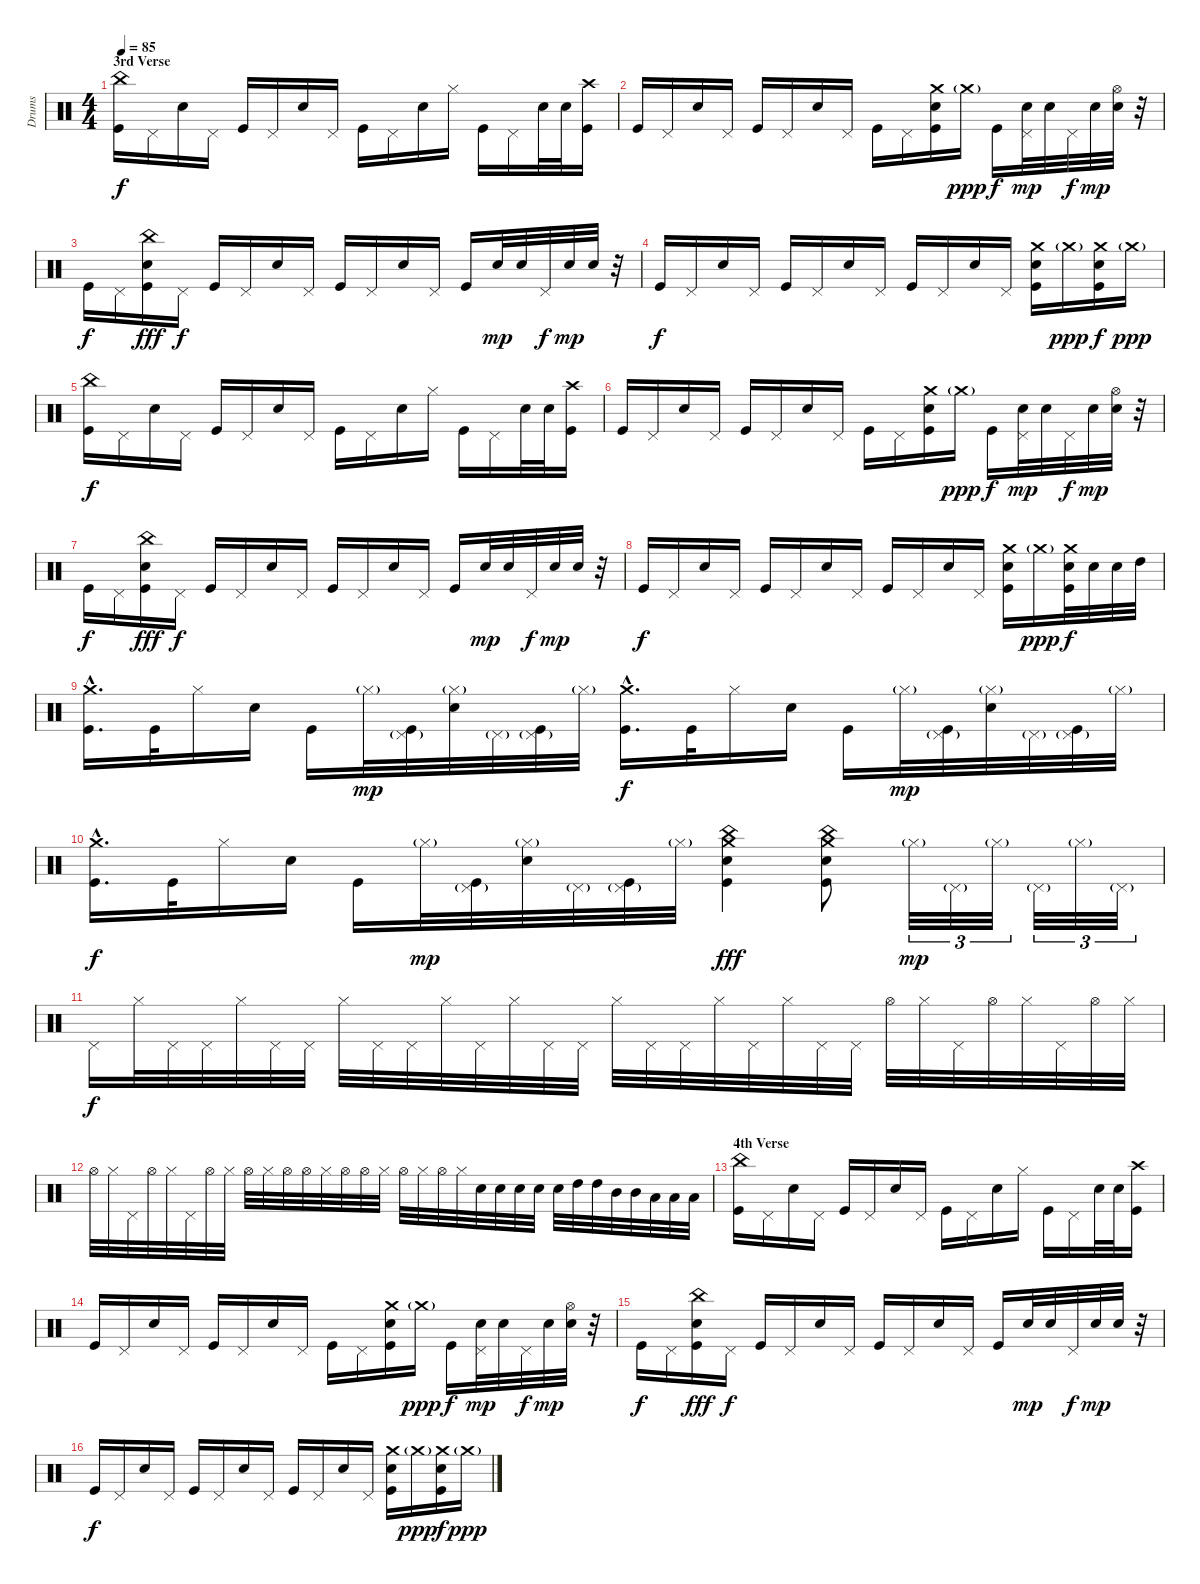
\track ("Drums" "Drums") {instrument percussion}
\staff {score}
\articulation defaults
\ts (4 4)
\section ("" "3rd Verse")
\tempo 85
\clef neutral
\ks c
("China (hit)" "Kick (hit)").16{dy f} "Pedal Hi-Hat (hit)".16 "Electric Snare (hit)".16 "Pedal Hi-Hat (hit)".16 "Kick (hit)".16 "Pedal Hi-Hat (hit)".16 "Electric Snare (hit)".16 "Pedal Hi-Hat (hit)".16 "Kick (hit)".16 "Pedal Hi-Hat (hit)".16 "Electric Snare (hit)".16 "Hi-Hat (closed)".16 "Kick (hit)".16 "Pedal Hi-Hat (hit)".16 "Electric Snare (hit)".32 "Electric Snare (hit)".32 ("Crash high (hit)" "Kick (hit)").16 |
"Kick (hit)".16 "Pedal Hi-Hat (hit)".16 "Electric Snare (hit)".16 "Pedal Hi-Hat (hit)".16 "Kick (hit)".16 "Pedal Hi-Hat (hit)".16 "Electric Snare (hit)".16 "Pedal Hi-Hat (hit)".16 "Kick (hit)".16 "Pedal Hi-Hat (hit)".16 ("Crash medium (hit)" "Electric Snare (hit)" "Kick (hit)").16 "Crash medium (hit)"{g}.16{dy ppp} "Kick (hit)".16{dy f} ("Pedal Hi-Hat (hit)" "Electric Snare (hit)").32{dy mp} "Electric Snare (hit)".32 "Pedal Hi-Hat (hit)".32{dy f} "Electric Snare (hit)".32{dy mp} ("Hi-Hat (open)" "Electric Snare (hit)").32 r.32 |
"Kick (hit)".16{dy f} "Pedal Hi-Hat (hit)".16 ("China (hit)" "Electric Snare (hit)" "Kick (hit)").16{dy fff} "Pedal Hi-Hat (hit)".16{dy f} "Kick (hit)".16 "Pedal Hi-Hat (hit)".16 "Electric Snare (hit)".16 "Pedal Hi-Hat (hit)".16 "Kick (hit)".16 "Pedal Hi-Hat (hit)".16 "Electric Snare (hit)".16 "Pedal Hi-Hat (hit)".16 "Kick (hit)".16 "Electric Snare (hit)".32{dy mp} "Electric Snare (hit)".32 "Pedal Hi-Hat (hit)".32{dy f} "Electric Snare (hit)".32{dy mp} "Electric Snare (hit)".32 r.32 |
"Kick (hit)".16{dy f} "Pedal Hi-Hat (hit)".16 "Electric Snare (hit)".16 "Pedal Hi-Hat (hit)".16 "Kick (hit)".16 "Pedal Hi-Hat (hit)".16 "Electric Snare (hit)".16 "Pedal Hi-Hat (hit)".16 "Kick (hit)".16 "Pedal Hi-Hat (hit)".16 "Electric Snare (hit)".16 "Pedal Hi-Hat (hit)".16 ("Crash medium (hit)" "Electric Snare (hit)" "Kick (hit)").16 "Crash medium (hit)"{g}.16{dy ppp} ("Crash medium (hit)" "Electric Snare (hit)" "Kick (hit)").16{dy f} "Crash medium (hit)"{g}.16{dy ppp} |
("China (hit)" "Kick (hit)").16{dy f} "Pedal Hi-Hat (hit)".16 "Electric Snare (hit)".16 "Pedal Hi-Hat (hit)".16 "Kick (hit)".16 "Pedal Hi-Hat (hit)".16 "Electric Snare (hit)".16 "Pedal Hi-Hat (hit)".16 "Kick (hit)".16 "Pedal Hi-Hat (hit)".16 "Electric Snare (hit)".16 "Hi-Hat (closed)".16 "Kick (hit)".16 "Pedal Hi-Hat (hit)".16 "Electric Snare (hit)".32 "Electric Snare (hit)".32 ("Crash high (hit)" "Kick (hit)").16 |
"Kick (hit)".16 "Pedal Hi-Hat (hit)".16 "Electric Snare (hit)".16 "Pedal Hi-Hat (hit)".16 "Kick (hit)".16 "Pedal Hi-Hat (hit)".16 "Electric Snare (hit)".16 "Pedal Hi-Hat (hit)".16 "Kick (hit)".16 "Pedal Hi-Hat (hit)".16 ("Crash medium (hit)" "Electric Snare (hit)" "Kick (hit)").16 "Crash medium (hit)"{g}.16{dy ppp} "Kick (hit)".16{dy f} ("Pedal Hi-Hat (hit)" "Electric Snare (hit)").32{dy mp} "Electric Snare (hit)".32 "Pedal Hi-Hat (hit)".32{dy f} "Electric Snare (hit)".32{dy mp} ("Hi-Hat (open)" "Electric Snare (hit)").32 r.32 |
"Kick (hit)".16{dy f} "Pedal Hi-Hat (hit)".16 ("China (hit)" "Electric Snare (hit)" "Kick (hit)").16{dy fff} "Pedal Hi-Hat (hit)".16{dy f} "Kick (hit)".16 "Pedal Hi-Hat (hit)".16 "Electric Snare (hit)".16 "Pedal Hi-Hat (hit)".16 "Kick (hit)".16 "Pedal Hi-Hat (hit)".16 "Electric Snare (hit)".16 "Pedal Hi-Hat (hit)".16 "Kick (hit)".16 "Electric Snare (hit)".32{dy mp} "Electric Snare (hit)".32 "Pedal Hi-Hat (hit)".32{dy f} "Electric Snare (hit)".32{dy mp} "Electric Snare (hit)".32 r.32 |
"Kick (hit)".16{dy f} "Pedal Hi-Hat (hit)".16 "Electric Snare (hit)".16 "Pedal Hi-Hat (hit)".16 "Kick (hit)".16 "Pedal Hi-Hat (hit)".16 "Electric Snare (hit)".16 "Pedal Hi-Hat (hit)".16 "Kick (hit)".16 "Pedal Hi-Hat (hit)".16 "Electric Snare (hit)".16 "Pedal Hi-Hat (hit)".16 ("Crash medium (hit)" "Electric Snare (hit)" "Kick (hit)").16 "Crash medium (hit)"{g}.16{dy ppp} ("Crash medium (hit)" "Electric Snare (hit)" "Kick (hit)").32{dy f} "Electric Snare (hit)".32 "Electric Snare (hit)".32 "High Tom (hit)".32 |
("Crash medium (hit)"{hac} "Kick (hit)"{hac}).16{d} "Kick (hit)".32 "Hi-Hat (closed)".16 "Electric Snare (hit)".16 "Kick (hit)".16 "Hi-Hat (closed)"{g}.32{dy mp} ("Pedal Hi-Hat (hit)"{g} "Kick (hit)").32 ("Hi-Hat (closed)"{g} "Electric Snare (hit)").32 "Pedal Hi-Hat (hit)"{g}.32 ("Pedal Hi-Hat (hit)"{g} "Kick (hit)").32 "Hi-Hat (closed)"{g}.32 ("Crash medium (hit)"{hac} "Kick (hit)"{hac}).16{d dy f} "Kick (hit)".32 "Hi-Hat (closed)".16 "Electric Snare (hit)".16 "Kick (hit)".16 "Hi-Hat (closed)"{g}.32{dy mp} ("Pedal Hi-Hat (hit)"{g} "Kick (hit)").32 ("Hi-Hat (closed)"{g} "Electric Snare (hit)").32 "Pedal Hi-Hat (hit)"{g}.32 ("Pedal Hi-Hat (hit)"{g} "Kick (hit)").32 "Hi-Hat (closed)"{g}.32 |
("Crash medium (hit)"{hac} "Kick (hit)"{hac}).16{d dy f} "Kick (hit)".32 "Hi-Hat (closed)".16 "Electric Snare (hit)".16 "Kick (hit)".16 "Hi-Hat (closed)"{g}.32{dy mp} ("Pedal Hi-Hat (hit)"{g} "Kick (hit)").32 ("Hi-Hat (closed)"{g} "Electric Snare (hit)").32 "Pedal Hi-Hat (hit)"{g}.32 ("Pedal Hi-Hat (hit)"{g} "Kick (hit)").32 "Hi-Hat (closed)"{g}.32 ("China (hit)" "Crash medium (hit)" "Electric Snare (hit)" "Kick (hit)").4{dy fff} ("China (hit)" "Crash medium (hit)" "Electric Snare (hit)" "Kick (hit)").8 "Hi-Hat (closed)"{g}.32{tu (3 2) dy mp} "Pedal Hi-Hat (hit)"{g}.32{tu (3 2)} "Hi-Hat (closed)"{g}.32{tu (3 2)} "Pedal Hi-Hat (hit)"{g}.32{tu (3 2)} "Hi-Hat (closed)"{g}.32{tu (3 2)} "Pedal Hi-Hat (hit)"{g}.32{tu (3 2)} |
"Pedal Hi-Hat (hit)".16{dy f} "Hi-Hat (closed)".32 "Pedal Hi-Hat (hit)".32 "Pedal Hi-Hat (hit)".32 "Hi-Hat (closed)".32 "Pedal Hi-Hat (hit)".32 "Pedal Hi-Hat (hit)".32 "Hi-Hat (closed)".32 "Pedal Hi-Hat (hit)".32 "Pedal Hi-Hat (hit)".32 "Hi-Hat (closed)".32 "Pedal Hi-Hat (hit)".32 "Hi-Hat (closed)".32 "Pedal Hi-Hat (hit)".32 "Pedal Hi-Hat (hit)".32 "Hi-Hat (closed)".32 "Pedal Hi-Hat (hit)".32 "Pedal Hi-Hat (hit)".32 "Hi-Hat (closed)".32 "Pedal Hi-Hat (hit)".32 "Hi-Hat (closed)".32 "Pedal Hi-Hat (hit)".32 "Pedal Hi-Hat (hit)".32 "Hi-Hat (open)".32 "Hi-Hat (closed)".32 "Pedal Hi-Hat (hit)".32 "Hi-Hat (open)".32 "Hi-Hat (closed)".32 "Pedal Hi-Hat (hit)".32 "Hi-Hat (open)".32 "Hi-Hat (closed)".32 |
"Hi-Hat (open)".32 "Hi-Hat (closed)".32 "Pedal Hi-Hat (hit)".32 "Hi-Hat (open)".32 "Hi-Hat (closed)".32 "Pedal Hi-Hat (hit)".32 "Hi-Hat (open)".32 "Hi-Hat (closed)".32 "Hi-Hat (open)".32 "Hi-Hat (closed)".32 "Hi-Hat (open)".32 "Hi-Hat (open)".32 "Hi-Hat (closed)".32 "Hi-Hat (open)".32 "Hi-Hat (open)".32 "Hi-Hat (closed)".32 "Hi-Hat (open)".32 "Hi-Hat (closed)".32 "Hi-Hat (open)".32 "Hi-Hat (closed)".32 "Electric Snare (hit)".32 "Electric Snare (hit)".32 "Electric Snare (hit)".32 "Electric Snare (hit)".32 "Electric Snare (hit)".32 "High Tom (hit)".32 "High Tom (hit)".32 "Mid Tom (hit)".32 "Mid Tom (hit)".32 "Low Tom (hit)".32 "Low Tom (hit)".32 "Low Tom (hit)".32 |
\section ("" "4th Verse")
("China (hit)" "Kick (hit)").16 "Pedal Hi-Hat (hit)".16 "Electric Snare (hit)".16 "Pedal Hi-Hat (hit)".16 "Kick (hit)".16 "Pedal Hi-Hat (hit)".16 "Electric Snare (hit)".16 "Pedal Hi-Hat (hit)".16 "Kick (hit)".16 "Pedal Hi-Hat (hit)".16 "Electric Snare (hit)".16 "Hi-Hat (closed)".16 "Kick (hit)".16 "Pedal Hi-Hat (hit)".16 "Electric Snare (hit)".32 "Electric Snare (hit)".32 ("Crash high (hit)" "Kick (hit)").16 |
"Kick (hit)".16 "Pedal Hi-Hat (hit)".16 "Electric Snare (hit)".16 "Pedal Hi-Hat (hit)".16 "Kick (hit)".16 "Pedal Hi-Hat (hit)".16 "Electric Snare (hit)".16 "Pedal Hi-Hat (hit)".16 "Kick (hit)".16 "Pedal Hi-Hat (hit)".16 ("Crash medium (hit)" "Electric Snare (hit)" "Kick (hit)").16 "Crash medium (hit)"{g}.16{dy ppp} "Kick (hit)".16{dy f} ("Pedal Hi-Hat (hit)" "Electric Snare (hit)").32{dy mp} "Electric Snare (hit)".32 "Pedal Hi-Hat (hit)".32{dy f} "Electric Snare (hit)".32{dy mp} ("Hi-Hat (open)" "Electric Snare (hit)").32 r.32 |
"Kick (hit)".16{dy f} "Pedal Hi-Hat (hit)".16 ("China (hit)" "Electric Snare (hit)" "Kick (hit)").16{dy fff} "Pedal Hi-Hat (hit)".16{dy f} "Kick (hit)".16 "Pedal Hi-Hat (hit)".16 "Electric Snare (hit)".16 "Pedal Hi-Hat (hit)".16 "Kick (hit)".16 "Pedal Hi-Hat (hit)".16 "Electric Snare (hit)".16 "Pedal Hi-Hat (hit)".16 "Kick (hit)".16 "Electric Snare (hit)".32{dy mp} "Electric Snare (hit)".32 "Pedal Hi-Hat (hit)".32{dy f} "Electric Snare (hit)".32{dy mp} "Electric Snare (hit)".32 r.32 |
"Kick (hit)".16{dy f} "Pedal Hi-Hat (hit)".16 "Electric Snare (hit)".16 "Pedal Hi-Hat (hit)".16 "Kick (hit)".16 "Pedal Hi-Hat (hit)".16 "Electric Snare (hit)".16 "Pedal Hi-Hat (hit)".16 "Kick (hit)".16 "Pedal Hi-Hat (hit)".16 "Electric Snare (hit)".16 "Pedal Hi-Hat (hit)".16 ("Crash medium (hit)" "Electric Snare (hit)" "Kick (hit)").16 "Crash medium (hit)"{g}.16{dy ppp} ("Crash medium (hit)" "Electric Snare (hit)" "Kick (hit)").16{dy f} "Crash medium (hit)"{g}.16{dy ppp}
